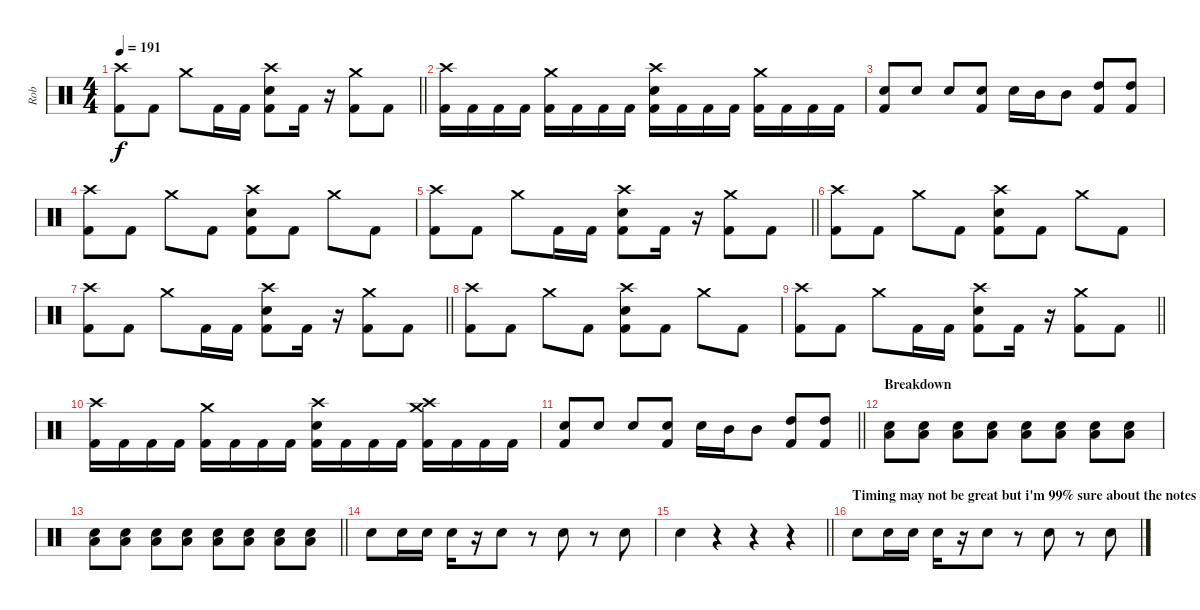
\track ("Rob" "Rob") {instrument percussion}
\staff {score}
\articulation defaults
\ts (4 4)
\tempo 191
\clef neutral
\barLineRight lightlight
\ks c
("Crash high (hit)" "Kick (hit) 2").8{dy f} "Kick (hit) 2".8 "Crash medium (hit)".8 "Kick (hit) 2".16 "Kick (hit) 2".16 ("Crash high (hit)" "Kick (hit) 2" "Snare (hit) 2").8 "Kick (hit) 2".16 r.16 ("Crash medium (hit)" "Kick (hit) 2").8 "Kick (hit) 2".8 |
("Kick (hit) 2" "Crash high (hit)").16 "Kick (hit) 2".16 "Kick (hit) 2".16 "Kick (hit) 2".16 ("Kick (hit) 2" "Crash medium (hit)").16 "Kick (hit) 2".16 "Kick (hit) 2".16 "Kick (hit) 2".16 ("Kick (hit) 2" "Crash high (hit)" "Snare (hit) 2").16 "Kick (hit) 2".16 "Kick (hit) 2".16 "Kick (hit) 2".16 ("Kick (hit) 2" "Crash medium (hit)").16 "Kick (hit) 2".16 "Kick (hit) 2".16 "Kick (hit) 2".16 |
("Snare (hit) 2" "Kick (hit) 2").8 "Snare (hit) 2".8 "Snare (hit) 2".8 ("Snare (hit) 2" "Kick (hit) 2").8 "Snare (hit) 2".16 "Mid Tom (hit)".16 "Mid Tom (hit)".8 ("High Tom (hit)" "Kick (hit) 2").8 ("High Tom (hit)" "Kick (hit) 2").8 |
("Crash high (hit)" "Kick (hit) 2").8 "Kick (hit) 2".8 "Crash medium (hit)".8 "Kick (hit) 2".8 ("Snare (hit) 2" "Kick (hit) 2" "Crash high (hit)").8 "Kick (hit) 2".8 "Crash medium (hit)".8 "Kick (hit) 2".8 |
\barLineRight lightlight
("Crash high (hit)" "Kick (hit) 2").8 "Kick (hit) 2".8 "Crash medium (hit)".8 "Kick (hit) 2".16 "Kick (hit) 2".16 ("Crash high (hit)" "Kick (hit) 2" "Snare (hit) 2").8 "Kick (hit) 2".16 r.16 ("Crash medium (hit)" "Kick (hit) 2").8 "Kick (hit) 2".8 |
("Crash high (hit)" "Kick (hit) 2").8 "Kick (hit) 2".8 "Crash medium (hit)".8 "Kick (hit) 2".8 ("Snare (hit) 2" "Kick (hit) 2" "Crash high (hit)").8 "Kick (hit) 2".8 "Crash medium (hit)".8 "Kick (hit) 2".8 |
\barLineRight lightlight
("Crash high (hit)" "Kick (hit) 2").8 "Kick (hit) 2".8 "Crash medium (hit)".8 "Kick (hit) 2".16 "Kick (hit) 2".16 ("Crash high (hit)" "Kick (hit) 2" "Snare (hit) 2").8 "Kick (hit) 2".16 r.16 ("Crash medium (hit)" "Kick (hit) 2").8 "Kick (hit) 2".8 |
("Crash high (hit)" "Kick (hit) 2").8 "Kick (hit) 2".8 "Crash medium (hit)".8 "Kick (hit) 2".8 ("Snare (hit) 2" "Kick (hit) 2" "Crash high (hit)").8 "Kick (hit) 2".8 "Crash medium (hit)".8 "Kick (hit) 2".8 |
\barLineRight lightlight
("Crash high (hit)" "Kick (hit) 2").8 "Kick (hit) 2".8 "Crash medium (hit)".8 "Kick (hit) 2".16 "Kick (hit) 2".16 ("Crash high (hit)" "Kick (hit) 2" "Snare (hit) 2").8 "Kick (hit) 2".16 r.16 ("Crash medium (hit)" "Kick (hit) 2").8 "Kick (hit) 2".8 |
("Kick (hit) 2" "Crash high (hit)").16 "Kick (hit) 2".16 "Kick (hit) 2".16 "Kick (hit) 2".16 ("Kick (hit) 2" "Crash medium (hit)").16 "Kick (hit) 2".16 "Kick (hit) 2".16 "Kick (hit) 2".16 ("Kick (hit) 2" "Crash high (hit)" "Snare (hit) 2").16 "Kick (hit) 2".16 "Kick (hit) 2".16 "Kick (hit) 2".16 ("Kick (hit) 2" "Crash high (hit)" "Crash medium (hit)").16 "Kick (hit) 2".16 "Kick (hit) 2".16 "Kick (hit) 2".16 |
\barLineRight lightlight
("Snare (hit) 2" "Kick (hit) 2").8 "Snare (hit) 2".8 "Snare (hit) 2".8 ("Snare (hit) 2" "Kick (hit) 2").8 "Snare (hit) 2".16 "Mid Tom (hit)".16 "Mid Tom (hit)".8 ("High Tom (hit)" "Kick (hit) 2").8 ("High Tom (hit)" "Kick (hit) 2").8 |
\section ("" "Breakdown")
("Snare (hit) 2" "Low Tom (hit)").8 ("Snare (hit) 2" "Low Tom (hit)").8 ("Snare (hit) 2" "Low Tom (hit)").8 ("Snare (hit) 2" "Low Tom (hit)").8 ("Snare (hit) 2" "Low Tom (hit)").8 ("Snare (hit) 2" "Low Tom (hit)").8 ("Snare (hit) 2" "Low Tom (hit)").8 ("Snare (hit) 2" "Low Tom (hit)").8 |
\barLineRight lightlight
("Snare (hit) 2" "Low Tom (hit)").8 ("Snare (hit) 2" "Low Tom (hit)").8 ("Snare (hit) 2" "Low Tom (hit)").8 ("Snare (hit) 2" "Low Tom (hit)").8 ("Snare (hit) 2" "Low Tom (hit)").8 ("Snare (hit) 2" "Low Tom (hit)").8 ("Snare (hit) 2" "Low Tom (hit)").8 ("Snare (hit) 2" "Low Tom (hit)").8 |
"Snare (hit) 2".8 "Snare (hit) 2".16 "Snare (hit) 2".16 "Snare (hit) 2".16 r.16 "Snare (hit) 2".8 r.8 "Snare (hit) 2".8 r.8 "Snare (hit) 2".8 |
\barLineRight lightlight "Snare (hit) 2".4
r.4 r.4 r.4 |
\section ("" "Timing may not be great but i'm 99% sure about the notes in the lead")
"Snare (hit) 2".8 "Snare (hit) 2".16 "Snare (hit) 2".16 "Snare (hit) 2".16 r.16 "Snare (hit) 2".8 r.8 "Snare (hit) 2".8 r.8 "Snare (hit) 2".8
